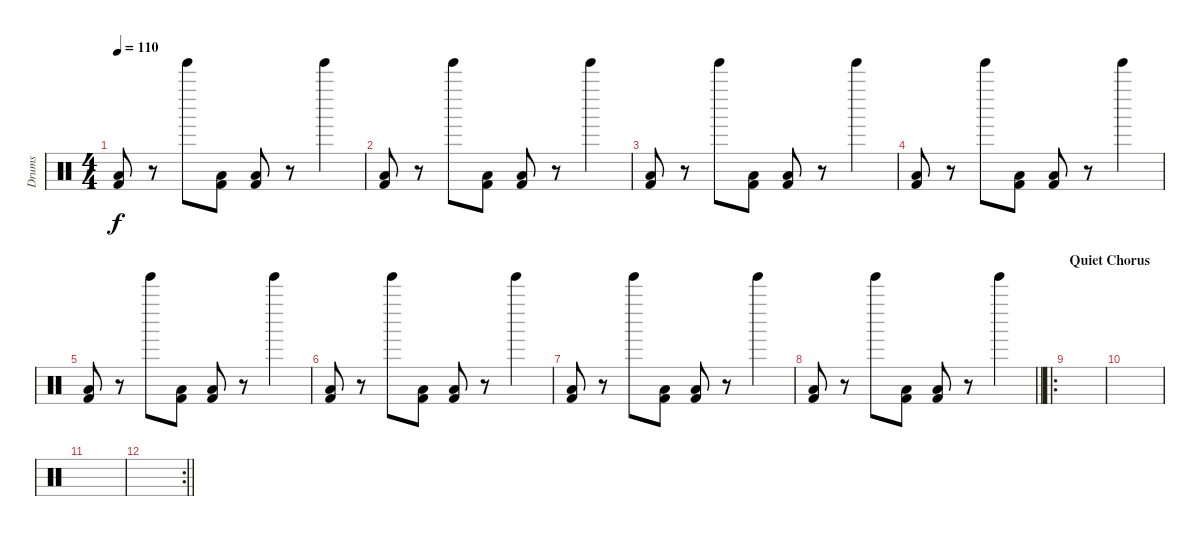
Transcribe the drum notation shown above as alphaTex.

\track ("Drums" "Drums") {instrument percussion}
\staff {score}
\articulation defaults
\ts (4 4)
\tempo 110
\clef neutral
\ks c
("Low Floor Tom (hit)" "Kick (hit) 2").8{dy f} r.8 "Tinkle Bell (hit)".8 ("Low Floor Tom (hit)" "Kick (hit) 2").8 ("Low Floor Tom (hit)" "Kick (hit) 2").8 r.8 "Tinkle Bell (hit)".4 |
("Low Floor Tom (hit)" "Kick (hit) 2").8 r.8 "Tinkle Bell (hit)".8 ("Low Floor Tom (hit)" "Kick (hit) 2").8 ("Low Floor Tom (hit)" "Kick (hit) 2").8 r.8 "Tinkle Bell (hit)".4 |
("Low Floor Tom (hit)" "Kick (hit) 2").8 r.8 "Tinkle Bell (hit)".8 ("Low Floor Tom (hit)" "Kick (hit) 2").8 ("Low Floor Tom (hit)" "Kick (hit) 2").8 r.8 "Tinkle Bell (hit)".4 |
("Low Floor Tom (hit)" "Kick (hit) 2").8 r.8 "Tinkle Bell (hit)".8 ("Low Floor Tom (hit)" "Kick (hit) 2").8 ("Low Floor Tom (hit)" "Kick (hit) 2").8 r.8 "Tinkle Bell (hit)".4 |
("Low Floor Tom (hit)" "Kick (hit) 2").8 r.8 "Tinkle Bell (hit)".8 ("Low Floor Tom (hit)" "Kick (hit) 2").8 ("Low Floor Tom (hit)" "Kick (hit) 2").8 r.8 "Tinkle Bell (hit)".4 |
("Low Floor Tom (hit)" "Kick (hit) 2").8 r.8 "Tinkle Bell (hit)".8 ("Low Floor Tom (hit)" "Kick (hit) 2").8 ("Low Floor Tom (hit)" "Kick (hit) 2").8 r.8 "Tinkle Bell (hit)".4 |
("Low Floor Tom (hit)" "Kick (hit) 2").8 r.8 "Tinkle Bell (hit)".8 ("Low Floor Tom (hit)" "Kick (hit) 2").8 ("Low Floor Tom (hit)" "Kick (hit) 2").8 r.8 "Tinkle Bell (hit)".4 |
\barLineRight lightlight
("Low Floor Tom (hit)" "Kick (hit) 2").8 r.8 "Tinkle Bell (hit)".8 ("Low Floor Tom (hit)" "Kick (hit) 2").8 ("Low Floor Tom (hit)" "Kick (hit) 2").8 r.8 "Tinkle Bell (hit)".4 |
\ro
\section ("" "Quiet Chorus")
|
|
|
\rc 2
\barLineRight lightlight
